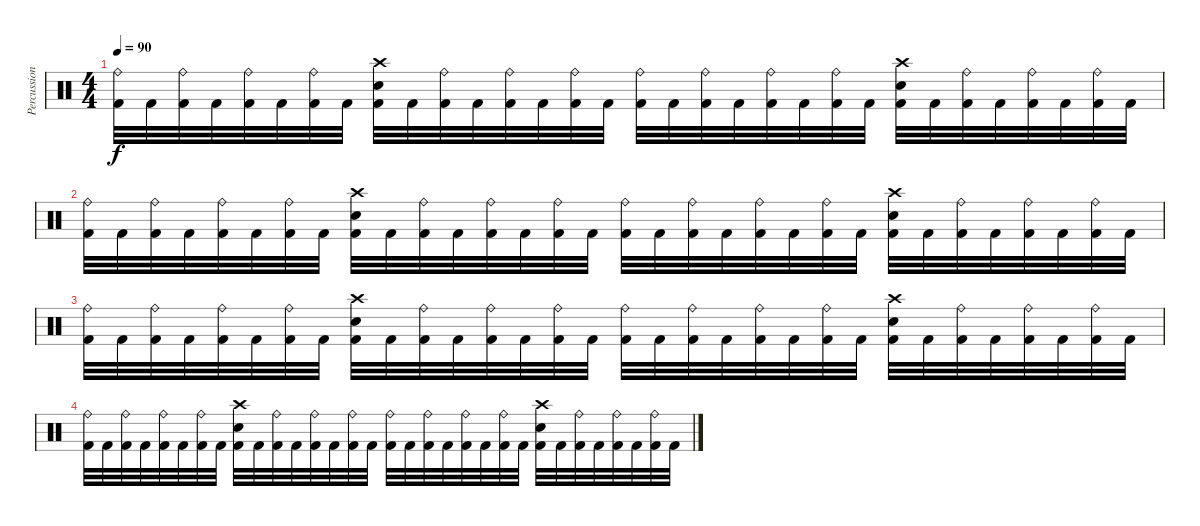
\track ("Percussion" "Percussion") {instrument percussion}
\staff {score}
\articulation defaults
\ts (4 4)
\tempo 90
\clef neutral
\ks c
("Ride (bell)" "Kick (hit) 2").32{dy f} "Kick (hit) 2".32 ("Ride (bell)" "Kick (hit) 2").32 "Kick (hit) 2".32 ("Ride (bell)" "Kick (hit) 2").32 "Kick (hit) 2".32 ("Ride (bell)" "Kick (hit) 2").32 "Kick (hit) 2".32 ("Crash high (hit)" "Electric Snare (hit)" "Kick (hit) 2").32 "Kick (hit) 2".32 ("Ride (bell)" "Kick (hit) 2").32 "Kick (hit) 2".32 ("Ride (bell)" "Kick (hit) 2").32 "Kick (hit) 2".32 ("Ride (bell)" "Kick (hit) 2").32 "Kick (hit) 2".32 ("Ride (bell)" "Kick (hit) 2").32 "Kick (hit) 2".32 ("Ride (bell)" "Kick (hit) 2").32 "Kick (hit) 2".32 ("Ride (bell)" "Kick (hit) 2").32 "Kick (hit) 2".32 ("Ride (bell)" "Kick (hit) 2").32 "Kick (hit) 2".32 ("Crash high (hit)" "Electric Snare (hit)" "Kick (hit) 2").32 "Kick (hit) 2".32 ("Ride (bell)" "Kick (hit) 2").32 "Kick (hit) 2".32 ("Ride (bell)" "Kick (hit) 2").32 "Kick (hit) 2".32 ("Ride (bell)" "Kick (hit) 2").32 "Kick (hit) 2".32 |
("Ride (bell)" "Kick (hit) 2").32 "Kick (hit) 2".32 ("Ride (bell)" "Kick (hit) 2").32 "Kick (hit) 2".32 ("Ride (bell)" "Kick (hit) 2").32 "Kick (hit) 2".32 ("Ride (bell)" "Kick (hit) 2").32 "Kick (hit) 2".32 ("Crash high (hit)" "Electric Snare (hit)" "Kick (hit) 2").32 "Kick (hit) 2".32 ("Ride (bell)" "Kick (hit) 2").32 "Kick (hit) 2".32 ("Ride (bell)" "Kick (hit) 2").32 "Kick (hit) 2".32 ("Ride (bell)" "Kick (hit) 2").32 "Kick (hit) 2".32 ("Ride (bell)" "Kick (hit) 2").32 "Kick (hit) 2".32 ("Ride (bell)" "Kick (hit) 2").32 "Kick (hit) 2".32 ("Ride (bell)" "Kick (hit) 2").32 "Kick (hit) 2".32 ("Ride (bell)" "Kick (hit) 2").32 "Kick (hit) 2".32 ("Crash high (hit)" "Electric Snare (hit)" "Kick (hit) 2").32 "Kick (hit) 2".32 ("Ride (bell)" "Kick (hit) 2").32 "Kick (hit) 2".32 ("Ride (bell)" "Kick (hit) 2").32 "Kick (hit) 2".32 ("Ride (bell)" "Kick (hit) 2").32 "Kick (hit) 2".32 |
("Ride (bell)" "Kick (hit) 2").32 "Kick (hit) 2".32 ("Ride (bell)" "Kick (hit) 2").32 "Kick (hit) 2".32 ("Ride (bell)" "Kick (hit) 2").32 "Kick (hit) 2".32 ("Ride (bell)" "Kick (hit) 2").32 "Kick (hit) 2".32 ("Crash high (hit)" "Electric Snare (hit)" "Kick (hit) 2").32 "Kick (hit) 2".32 ("Ride (bell)" "Kick (hit) 2").32 "Kick (hit) 2".32 ("Ride (bell)" "Kick (hit) 2").32 "Kick (hit) 2".32 ("Ride (bell)" "Kick (hit) 2").32 "Kick (hit) 2".32 ("Ride (bell)" "Kick (hit) 2").32 "Kick (hit) 2".32 ("Ride (bell)" "Kick (hit) 2").32 "Kick (hit) 2".32 ("Ride (bell)" "Kick (hit) 2").32 "Kick (hit) 2".32 ("Ride (bell)" "Kick (hit) 2").32 "Kick (hit) 2".32 ("Crash high (hit)" "Electric Snare (hit)" "Kick (hit) 2").32 "Kick (hit) 2".32 ("Ride (bell)" "Kick (hit) 2").32 "Kick (hit) 2".32 ("Ride (bell)" "Kick (hit) 2").32 "Kick (hit) 2".32 ("Ride (bell)" "Kick (hit) 2").32 "Kick (hit) 2".32 |
("Ride (bell)" "Kick (hit) 2").32 "Kick (hit) 2".32 ("Ride (bell)" "Kick (hit) 2").32 "Kick (hit) 2".32 ("Ride (bell)" "Kick (hit) 2").32 "Kick (hit) 2".32 ("Ride (bell)" "Kick (hit) 2").32 "Kick (hit) 2".32 ("Crash high (hit)" "Electric Snare (hit)" "Kick (hit) 2").32 "Kick (hit) 2".32 ("Ride (bell)" "Kick (hit) 2").32 "Kick (hit) 2".32 ("Ride (bell)" "Kick (hit) 2").32 "Kick (hit) 2".32 ("Ride (bell)" "Kick (hit) 2").32 "Kick (hit) 2".32 ("Ride (bell)" "Kick (hit) 2").32 "Kick (hit) 2".32 ("Ride (bell)" "Kick (hit) 2").32 "Kick (hit) 2".32 ("Ride (bell)" "Kick (hit) 2").32 "Kick (hit) 2".32 ("Ride (bell)" "Kick (hit) 2").32 "Kick (hit) 2".32 ("Crash high (hit)" "Electric Snare (hit)" "Kick (hit) 2").32 "Kick (hit) 2".32 ("Ride (bell)" "Kick (hit) 2").32 "Kick (hit) 2".32 ("Ride (bell)" "Kick (hit) 2").32 "Kick (hit) 2".32 ("Ride (bell)" "Kick (hit) 2").32 "Kick (hit) 2".32
